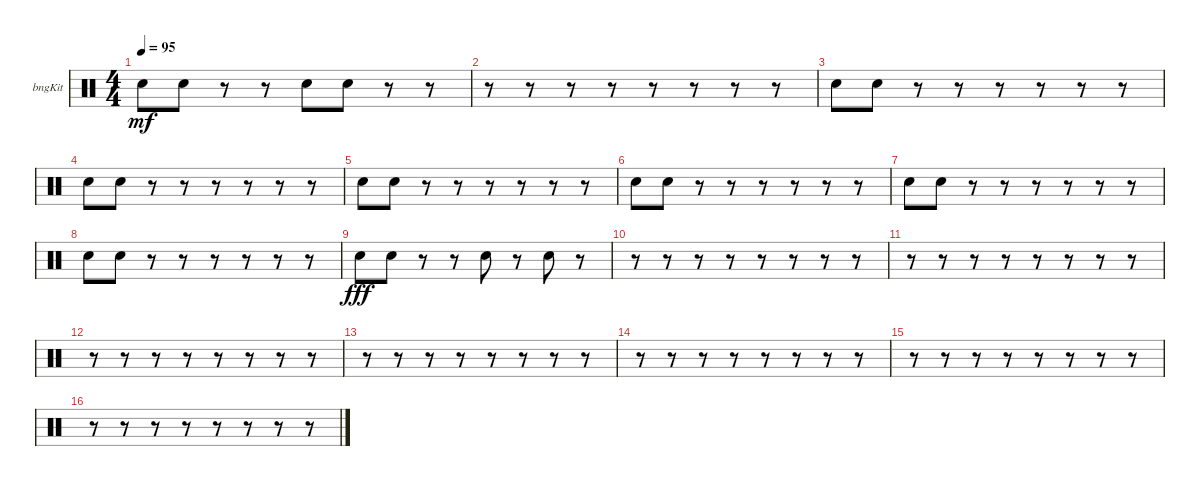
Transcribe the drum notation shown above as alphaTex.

\bracketExtendMode groupsimilarinstruments
\firstSystemTrackNameOrientation horizontal
\otherSystemsTrackNameOrientation horizontal
\track ("Bongos" "bngKit") {instrument percussion}
\staff {score}
\articulation defaults
\ts (4 4)
\tempo 95
\clef neutral
\ks c "Snare (hit) 2".8{dy mf} "Snare (hit) 2".8
r.8 r.8 "Snare (hit) 2".8 "Snare (hit) 2".8 r.8 r.8 |
r.8 r.8 r.8 r.8 r.8 r.8 r.8 r.8 |
"Snare (hit) 2".8 "Snare (hit) 2".8 r.8 r.8 r.8 r.8 r.8 r.8 |
"Snare (hit) 2".8 "Snare (hit) 2".8 r.8 r.8 r.8 r.8 r.8 r.8 |
"Snare (hit) 2".8 "Snare (hit) 2".8 r.8 r.8 r.8 r.8 r.8 r.8 |
"Snare (hit) 2".8 "Snare (hit) 2".8 r.8 r.8 r.8 r.8 r.8 r.8 |
"Snare (hit) 2".8 "Snare (hit) 2".8 r.8 r.8 r.8 r.8 r.8 r.8 |
"Snare (hit) 2".8 "Snare (hit) 2".8 r.8 r.8 r.8 r.8 r.8 r.8 |
"Snare (hit) 2".8{dy fff} "Snare (hit) 2".8 r.8 r.8 "Snare (hit) 2".8 r.8 "Snare (hit) 2".8 r.8 |
r.8 r.8 r.8 r.8 r.8 r.8 r.8 r.8 |
r.8 r.8 r.8 r.8 r.8 r.8 r.8 r.8 |
r.8 r.8 r.8 r.8 r.8 r.8 r.8 r.8 |
r.8 r.8 r.8 r.8 r.8 r.8 r.8 r.8 |
r.8 r.8 r.8 r.8 r.8 r.8 r.8 r.8 |
r.8 r.8 r.8 r.8 r.8 r.8 r.8 r.8 |
r.8 r.8 r.8 r.8 r.8 r.8 r.8 r.8
